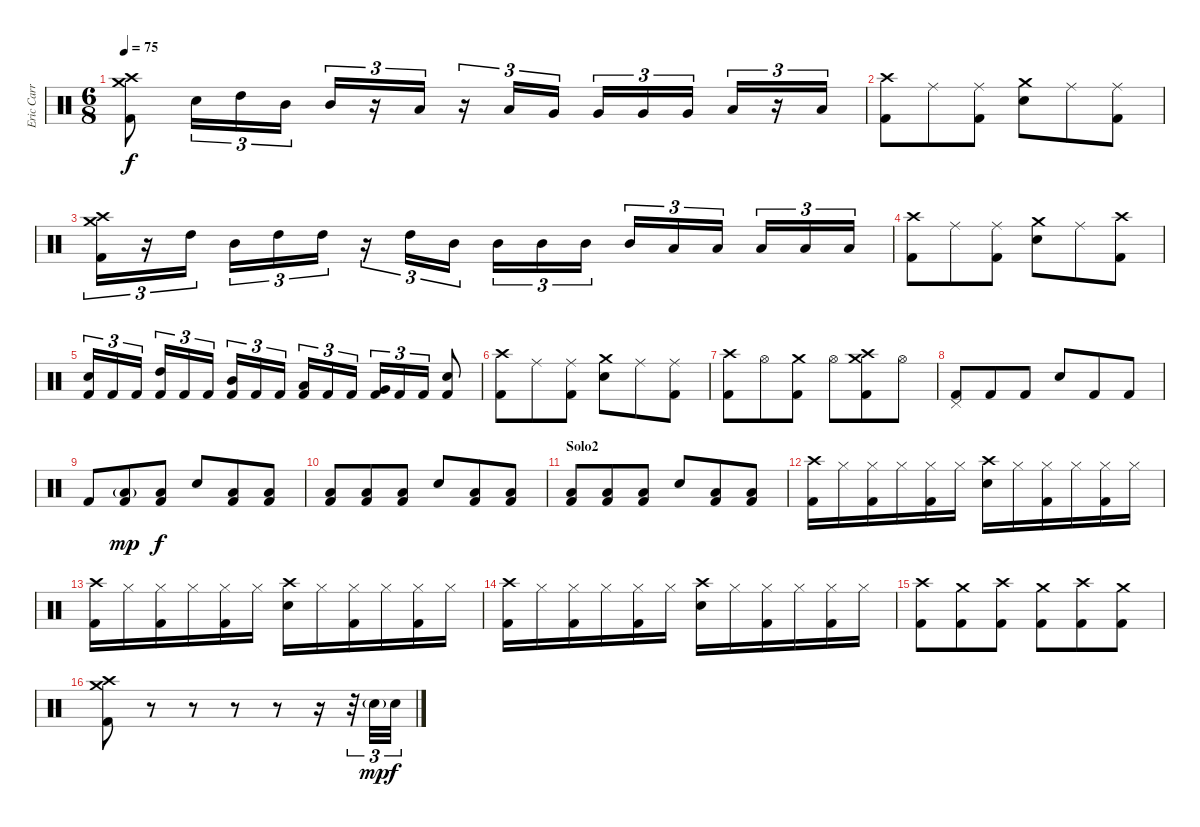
\track ("Eric Carr" "Eric Carr") {instrument percussion}
\staff {score}
\articulation defaults
\ts (6 8)
\tempo 75
\clef neutral
\ks c
("Crash high (hit)" "Crash medium (hit)" "Kick (hit) 2").8{dy f} "Electric Snare (hit)".16{tu (3 2)} "High Tom (hit)".16{tu (3 2)} "Mid Tom (hit)".16{tu (3 2)} "Mid Tom (hit)".16{tu (3 2)} r.16{tu (3 2)} "Low Tom (hit)".16{tu (3 2)} r.16{tu (3 2)} "Low Tom (hit)".16{tu (3 2)} "Very Low Tom (hit)".16{tu (3 2)} "Very Low Tom (hit)".16{tu (3 2)} "Very Low Tom (hit)".16{tu (3 2)} "Very Low Tom (hit)".16{tu (3 2)} "Low Floor Tom (hit)".16{tu (3 2)} r.16{tu (3 2)} "Low Floor Tom (hit)".16{tu (3 2)} |
("Crash high (hit)" "Kick (hit) 2").8 "Ride (middle)".8 ("Ride (middle)" "Kick (hit) 2").8 ("Crash medium (hit)" "Electric Snare (hit)").8 "Ride (middle)".8 ("Ride (middle)" "Kick (hit) 2").8 |
("Crash high (hit)" "Crash medium (hit)" "Kick (hit) 2").16{tu (3 2)} r.16{tu (3 2)} "High Tom (hit)".16{tu (3 2)} "Mid Tom (hit)".16{tu (3 2)} "High Tom (hit)".16{tu (3 2)} "High Tom (hit)".16{tu (3 2)} r.16{tu (3 2)} "High Tom (hit)".16{tu (3 2)} "Mid Tom (hit)".16{tu (3 2)} "Mid Tom (hit)".16{tu (3 2)} "Mid Tom (hit)".16{tu (3 2)} "Mid Tom (hit)".16{tu (3 2)} "Mid Tom (hit)".16{tu (3 2)} "Low Tom (hit)".16{tu (3 2)} "Low Tom (hit)".16{tu (3 2)} "Low Tom (hit)".16{tu (3 2)} "Low Tom (hit)".16{tu (3 2)} "Low Tom (hit)".16{tu (3 2)} |
("Crash high (hit)" "Kick (hit) 2").8 "Ride (middle)".8 ("Ride (middle)" "Kick (hit) 2").8 ("Crash medium (hit)" "Electric Snare (hit)").8 "Ride (middle)".8 ("Crash high (hit)" "Kick (hit) 2").8 |
("Electric Snare (hit)" "Kick (hit) 2").16{tu (3 2)} "Kick (hit) 2".16{tu (3 2)} "Kick (hit) 2".16{tu (3 2)} ("High Tom (hit)" "Kick (hit) 2").16{tu (3 2)} "Kick (hit) 2".16{tu (3 2)} "Kick (hit) 2".16{tu (3 2)} ("Mid Tom (hit)" "Kick (hit) 2").16{tu (3 2)} "Kick (hit) 2".16{tu (3 2)} "Kick (hit) 2".16{tu (3 2)} ("Low Tom (hit)" "Kick (hit) 2").16{tu (3 2)} "Kick (hit) 2".16{tu (3 2)} "Kick (hit) 2".16{tu (3 2)} ("Very Low Tom (hit)" "Kick (hit) 2").16{tu (3 2)} "Kick (hit) 2".16{tu (3 2)} "Kick (hit) 2".16{tu (3 2)} ("Electric Snare (hit)" "Kick (hit) 2").8 |
("Crash high (hit)" "Kick (hit) 2").8 "Ride (middle)".8 ("Ride (middle)" "Kick (hit) 2").8 ("Crash medium (hit)" "Electric Snare (hit)").8 "Ride (middle)".8 ("Ride (middle)" "Kick (hit) 2").8 |
("Crash high (hit)" "Kick (hit) 2").8 "Hi-Hat (open)".8 ("Crash medium (hit)" "Kick (hit) 2").8 "Hi-Hat (open)".8 ("Crash high (hit)" "Crash medium (hit)" "Kick (hit) 2").8 "Hi-Hat (open)".8 |
("Pedal Hi-Hat (hit)" "Kick (hit) 2").8 "Kick (hit) 2".8 "Kick (hit) 2".8 "Electric Snare (hit)".8 "Kick (hit) 2".8 "Kick (hit) 2".8 |
"Kick (hit) 2".8 ("Low Floor Tom (hit)"{g} "Kick (hit) 2").8{dy mp} ("Low Floor Tom (hit)" "Kick (hit) 2").8{dy f} "Electric Snare (hit)".8 ("Low Floor Tom (hit)" "Kick (hit) 2").8 ("Low Floor Tom (hit)" "Kick (hit) 2").8 |
("Low Floor Tom (hit)" "Kick (hit) 2").8 ("Low Floor Tom (hit)" "Kick (hit) 2").8 ("Low Floor Tom (hit)" "Kick (hit) 2").8 "Electric Snare (hit)".8 ("Low Floor Tom (hit)" "Kick (hit) 2").8 ("Low Floor Tom (hit)" "Kick (hit) 2").8 |
\section ("" "Solo2")
("Low Floor Tom (hit)" "Kick (hit) 2").8 ("Low Floor Tom (hit)" "Kick (hit) 2").8 ("Low Floor Tom (hit)" "Kick (hit) 2").8 "Electric Snare (hit)".8 ("Low Floor Tom (hit)" "Kick (hit) 2").8 ("Low Floor Tom (hit)" "Kick (hit) 2").8 |
("Crash high (hit)" "Kick (hit) 2").16 "Hi-Hat (closed)".16 ("Hi-Hat (closed)" "Kick (hit) 2").16 "Hi-Hat (closed)".16 ("Hi-Hat (closed)" "Kick (hit) 2").16 "Hi-Hat (closed)".16 ("Crash high (hit)" "Electric Snare (hit)").16 "Hi-Hat (closed)".16 ("Hi-Hat (closed)" "Kick (hit) 2").16 "Hi-Hat (closed)".16 ("Hi-Hat (closed)" "Kick (hit) 2").16 "Hi-Hat (closed)".16 |
("Crash high (hit)" "Kick (hit) 2").16 "Hi-Hat (closed)".16 ("Hi-Hat (closed)" "Kick (hit) 2").16 "Hi-Hat (closed)".16 ("Hi-Hat (closed)" "Kick (hit) 2").16 "Hi-Hat (closed)".16 ("Crash high (hit)" "Electric Snare (hit)").16 "Hi-Hat (closed)".16 ("Hi-Hat (closed)" "Kick (hit) 2").16 "Hi-Hat (closed)".16 ("Hi-Hat (closed)" "Kick (hit) 2").16 "Hi-Hat (closed)".16 |
("Crash high (hit)" "Kick (hit) 2").16 "Hi-Hat (closed)".16 ("Hi-Hat (closed)" "Kick (hit) 2").16 "Hi-Hat (closed)".16 ("Hi-Hat (closed)" "Kick (hit) 2").16 "Hi-Hat (closed)".16 ("Crash high (hit)" "Electric Snare (hit)").16 "Hi-Hat (closed)".16 ("Hi-Hat (closed)" "Kick (hit) 2").16 "Hi-Hat (closed)".16 ("Hi-Hat (closed)" "Kick (hit) 2").16 "Hi-Hat (closed)".16 |
("Crash high (hit)" "Kick (hit) 2").8 ("Crash medium (hit)" "Kick (hit) 2").8 ("Crash high (hit)" "Kick (hit) 2").8 ("Crash medium (hit)" "Kick (hit) 2").8 ("Crash high (hit)" "Kick (hit) 2").8 ("Crash medium (hit)" "Kick (hit) 2").8 |
("Crash high (hit)" "Crash medium (hit)" "Kick (hit) 2").8 r.8 r.8 r.8 r.8 r.16 r.32{tu (3 2)} "Electric Snare (hit)"{g}.32{tu (3 2) dy mp} "Electric Snare (hit)".32{tu (3 2) dy f}
